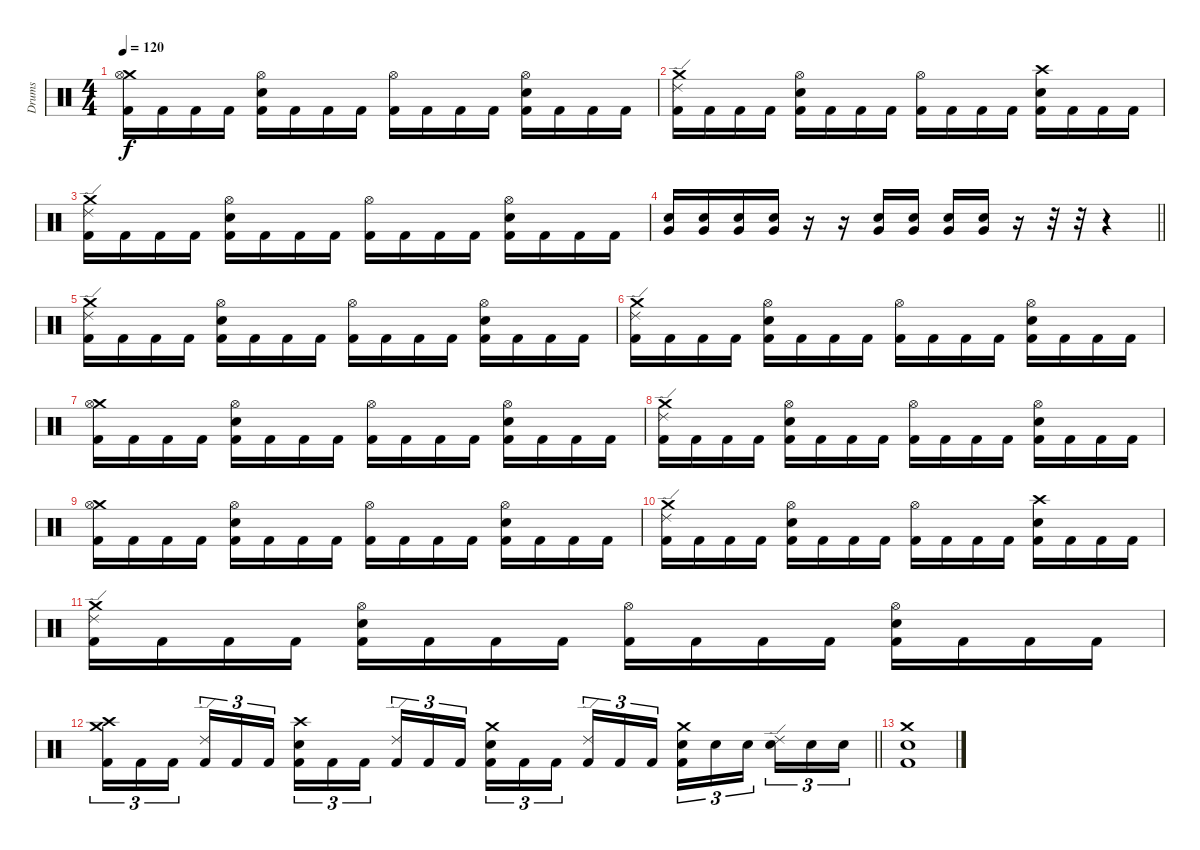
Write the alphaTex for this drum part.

\track ("Drums" "Drums") {instrument percussion}
\staff {score}
\articulation defaults
\ts (4 4)
\tempo 120
\clef neutral
\ks c
("Crash medium (hit)" "Hi-Hat (open)" "Kick (hit) 2").16{dy f} "Kick (hit) 2".16 "Kick (hit) 2".16 "Kick (hit) 2".16 ("Hi-Hat (open)" "Electric Snare (hit)" "Kick (hit) 2").16 "Kick (hit) 2".16 "Kick (hit) 2".16 "Kick (hit) 2".16 ("Hi-Hat (open)" "Kick (hit) 2").16 "Kick (hit) 2".16 "Kick (hit) 2".16 "Kick (hit) 2".16 ("Hi-Hat (open)" "Electric Snare (hit)" "Kick (hit) 2").16 "Kick (hit) 2".16 "Kick (hit) 2".16 "Kick (hit) 2".16 |
("Crash medium (hit)" "Ride (edge) 2" "Kick (hit) 2").16 "Kick (hit) 2".16 "Kick (hit) 2".16 "Kick (hit) 2".16 ("Hi-Hat (open)" "Electric Snare (hit)" "Kick (hit) 2").16 "Kick (hit) 2".16 "Kick (hit) 2".16 "Kick (hit) 2".16 ("Hi-Hat (open)" "Kick (hit) 2").16 "Kick (hit) 2".16 "Kick (hit) 2".16 "Kick (hit) 2".16 ("Crash high (hit)" "Electric Snare (hit)" "Kick (hit) 2").16 "Kick (hit) 2".16 "Kick (hit) 2".16 "Kick (hit) 2".16 |
("Crash medium (hit)" "Ride (edge) 2" "Kick (hit) 2").16 "Kick (hit) 2".16 "Kick (hit) 2".16 "Kick (hit) 2".16 ("Hi-Hat (open)" "Electric Snare (hit)" "Kick (hit) 2").16 "Kick (hit) 2".16 "Kick (hit) 2".16 "Kick (hit) 2".16 ("Hi-Hat (open)" "Kick (hit) 2").16 "Kick (hit) 2".16 "Kick (hit) 2".16 "Kick (hit) 2".16 ("Hi-Hat (open)" "Electric Snare (hit)" "Kick (hit) 2").16 "Kick (hit) 2".16 "Kick (hit) 2".16 "Kick (hit) 2".16 |
\barLineRight lightlight
("Electric Snare (hit)" "Very Low Tom (hit)").16 ("Electric Snare (hit)" "Very Low Tom (hit)").16 ("Electric Snare (hit)" "Very Low Tom (hit)").16 ("Electric Snare (hit)" "Very Low Tom (hit)").16 r.16 r.16 ("Electric Snare (hit)" "Very Low Tom (hit)").16 ("Electric Snare (hit)" "Very Low Tom (hit)").16 ("Electric Snare (hit)" "Very Low Tom (hit)").16 ("Electric Snare (hit)" "Very Low Tom (hit)").16 r.16 r.32 r.32 r.4 |
\section ("" "")
("Crash medium (hit)" "Ride (edge) 2" "Kick (hit) 2").16 "Kick (hit) 2".16 "Kick (hit) 2".16 "Kick (hit) 2".16 ("Hi-Hat (open)" "Electric Snare (hit)" "Kick (hit) 2").16 "Kick (hit) 2".16 "Kick (hit) 2".16 "Kick (hit) 2".16 ("Hi-Hat (open)" "Kick (hit) 2").16 "Kick (hit) 2".16 "Kick (hit) 2".16 "Kick (hit) 2".16 ("Hi-Hat (open)" "Electric Snare (hit)" "Kick (hit) 2").16 "Kick (hit) 2".16 "Kick (hit) 2".16 "Kick (hit) 2".16 |
("Crash medium (hit)" "Ride (edge) 2" "Kick (hit) 2").16 "Kick (hit) 2".16 "Kick (hit) 2".16 "Kick (hit) 2".16 ("Hi-Hat (open)" "Electric Snare (hit)" "Kick (hit) 2").16 "Kick (hit) 2".16 "Kick (hit) 2".16 "Kick (hit) 2".16 ("Hi-Hat (open)" "Kick (hit) 2").16 "Kick (hit) 2".16 "Kick (hit) 2".16 "Kick (hit) 2".16 ("Hi-Hat (open)" "Electric Snare (hit)" "Kick (hit) 2").16 "Kick (hit) 2".16 "Kick (hit) 2".16 "Kick (hit) 2".16 |
("Crash medium (hit)" "Hi-Hat (open)" "Kick (hit) 2").16 "Kick (hit) 2".16 "Kick (hit) 2".16 "Kick (hit) 2".16 ("Hi-Hat (open)" "Electric Snare (hit)" "Kick (hit) 2").16 "Kick (hit) 2".16 "Kick (hit) 2".16 "Kick (hit) 2".16 ("Hi-Hat (open)" "Kick (hit) 2").16 "Kick (hit) 2".16 "Kick (hit) 2".16 "Kick (hit) 2".16 ("Hi-Hat (open)" "Electric Snare (hit)" "Kick (hit) 2").16 "Kick (hit) 2".16 "Kick (hit) 2".16 "Kick (hit) 2".16 |
("Crash medium (hit)" "Ride (edge) 2" "Kick (hit) 2").16 "Kick (hit) 2".16 "Kick (hit) 2".16 "Kick (hit) 2".16 ("Hi-Hat (open)" "Electric Snare (hit)" "Kick (hit) 2").16 "Kick (hit) 2".16 "Kick (hit) 2".16 "Kick (hit) 2".16 ("Hi-Hat (open)" "Kick (hit) 2").16 "Kick (hit) 2".16 "Kick (hit) 2".16 "Kick (hit) 2".16 ("Hi-Hat (open)" "Electric Snare (hit)" "Kick (hit) 2").16 "Kick (hit) 2".16 "Kick (hit) 2".16 "Kick (hit) 2".16 |
("Crash medium (hit)" "Hi-Hat (open)" "Kick (hit) 2").16 "Kick (hit) 2".16 "Kick (hit) 2".16 "Kick (hit) 2".16 ("Hi-Hat (open)" "Electric Snare (hit)" "Kick (hit) 2").16 "Kick (hit) 2".16 "Kick (hit) 2".16 "Kick (hit) 2".16 ("Hi-Hat (open)" "Kick (hit) 2").16 "Kick (hit) 2".16 "Kick (hit) 2".16 "Kick (hit) 2".16 ("Hi-Hat (open)" "Electric Snare (hit)" "Kick (hit) 2").16 "Kick (hit) 2".16 "Kick (hit) 2".16 "Kick (hit) 2".16 |
("Crash medium (hit)" "Ride (edge) 2" "Kick (hit) 2").16 "Kick (hit) 2".16 "Kick (hit) 2".16 "Kick (hit) 2".16 ("Hi-Hat (open)" "Electric Snare (hit)" "Kick (hit) 2").16 "Kick (hit) 2".16 "Kick (hit) 2".16 "Kick (hit) 2".16 ("Hi-Hat (open)" "Kick (hit) 2").16 "Kick (hit) 2".16 "Kick (hit) 2".16 "Kick (hit) 2".16 ("Crash high (hit)" "Electric Snare (hit)" "Kick (hit) 2").16 "Kick (hit) 2".16 "Kick (hit) 2".16 "Kick (hit) 2".16 |
("Crash medium (hit)" "Ride (edge) 2" "Kick (hit) 2").16 "Kick (hit) 2".16 "Kick (hit) 2".16 "Kick (hit) 2".16 ("Hi-Hat (open)" "Electric Snare (hit)" "Kick (hit) 2").16 "Kick (hit) 2".16 "Kick (hit) 2".16 "Kick (hit) 2".16 ("Hi-Hat (open)" "Kick (hit) 2").16 "Kick (hit) 2".16 "Kick (hit) 2".16 "Kick (hit) 2".16 ("Hi-Hat (open)" "Electric Snare (hit)" "Kick (hit) 2").16 "Kick (hit) 2".16 "Kick (hit) 2".16 "Kick (hit) 2".16 |
\barLineRight lightlight
("Crash high (hit)" "Crash medium (hit)" "Kick (hit) 2").16{tu (3 2)} "Kick (hit) 2".16{tu (3 2)} "Kick (hit) 2".16{tu (3 2) beam splitsecondary} ("Ride (edge) 2" "Kick (hit) 2").16{tu (3 2)} "Kick (hit) 2".16{tu (3 2)} "Kick (hit) 2".16{tu (3 2)} ("Crash high (hit)" "Electric Snare (hit)" "Kick (hit) 2").16{tu (3 2)} "Kick (hit) 2".16{tu (3 2)} "Kick (hit) 2".16{tu (3 2) beam splitsecondary} ("Ride (edge) 2" "Kick (hit) 2").16{tu (3 2)} "Kick (hit) 2".16{tu (3 2)} "Kick (hit) 2".16{tu (3 2)} ("Crash medium (hit)" "Electric Snare (hit)" "Kick (hit) 2").16{tu (3 2)} "Kick (hit) 2".16{tu (3 2)} "Kick (hit) 2".16{tu (3 2) beam splitsecondary} ("Ride (edge) 2" "Kick (hit) 2").16{tu (3 2)} "Kick (hit) 2".16{tu (3 2)} "Kick (hit) 2".16{tu (3 2)} ("Crash medium (hit)" "Electric Snare (hit)" "Kick (hit) 2").16{tu (3 2)} "Snare (hit) 2".16{tu (3 2)} "Snare (hit) 2".16{tu (3 2) beam splitsecondary} ("Ride (edge) 2" "Snare (hit) 2").16{tu (3 2)} "Snare (hit) 2".16{tu (3 2)} "Snare (hit) 2".16{tu (3 2)} |
("Kick (hit) 2" "Electric Snare (hit)" "Crash medium (hit)").1
